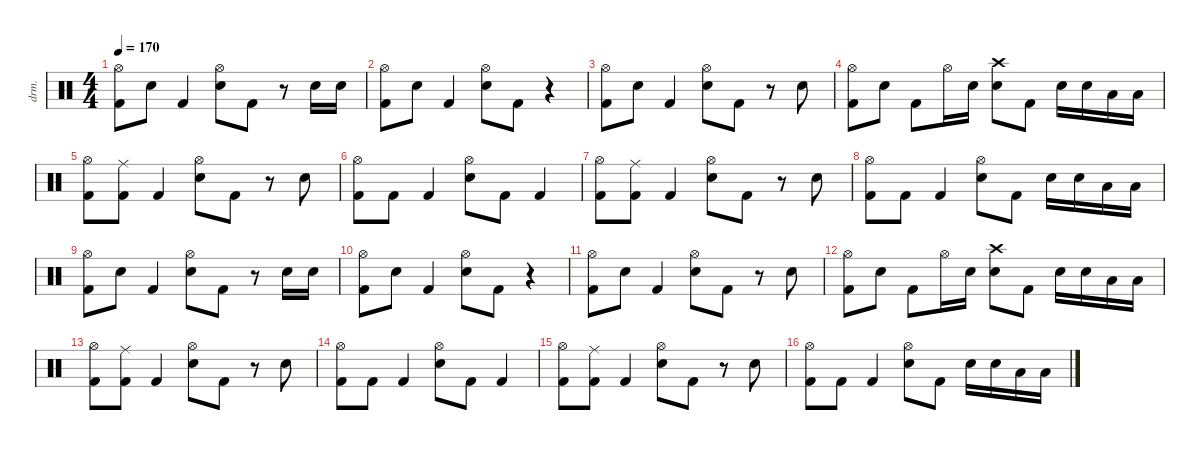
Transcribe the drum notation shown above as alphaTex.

\defaultSystemsLayout 4
\hideDynamics
\bracketExtendMode nobrackets
\otherSystemsTrackNameOrientation horizontal
\track ("Kontakt" "drm.") {instrument percussion}
\staff {score}
\articulation defaults
\ts (4 4)
\tempo 170
\clef neutral
\ks c
("Kick (hit) 2" "Hi-Hat (open)"{acc #}).8{dy ff beam Down} "Snare (hit) 2".8{beam Down} "Kick (hit) 2".4{beam Up} ("Snare (hit) 2" "Hi-Hat (open)"{acc #}).8{beam Down} "Kick (hit) 2".8{beam Down} r.8{beam Down} "Snare (hit) 2".16{beam Down} "Snare (hit) 2".16{beam Down} |
("Kick (hit) 2" "Hi-Hat (open)"{acc #}).8{beam Down} "Snare (hit) 2".8{beam Down} "Kick (hit) 2".4{beam Up} ("Snare (hit) 2" "Hi-Hat (open)"{acc #}).8{beam Down} "Kick (hit) 2".8{beam Down} r.4{beam Down} |
("Kick (hit) 2" "Hi-Hat (open)"{acc #}).8{beam Down} "Snare (hit) 2".8{beam Down} "Kick (hit) 2".4{beam Up} ("Snare (hit) 2" "Hi-Hat (open)"{acc #}).8{beam Down} "Kick (hit) 2".8{beam Down} r.8{beam Down} "Snare (hit) 2".8{beam Down} |
("Kick (hit) 2" "Hi-Hat (open)"{acc #}).8{beam Down} "Snare (hit) 2".8{beam Down} "Kick (hit) 2".8{beam Down} "Hi-Hat (open)"{acc #}.16{beam Down} "Snare (hit) 2".16{beam Down} ("Snare (hit) 2" "Crash high (hit)"{acc #}).8{beam Down} "Kick (hit) 2".8{beam Down} "Snare (hit) 2".16{beam Down} "Snare (hit) 2".16{beam Down} "Low Tom (hit)".16{beam Down} "Low Tom (hit)".16{beam Down} |
("Kick (hit) 2" "Hi-Hat (open)"{acc #}).8{beam Down} ("Kick (hit) 2" "Ride (middle)"{acc #}).8{beam Down} "Kick (hit) 2".4{beam Up} ("Snare (hit) 2" "Hi-Hat (open)"{acc #}).8{beam Down} "Kick (hit) 2".8{beam Down} r.8{beam Down} "Snare (hit) 2".8{beam Down} |
("Kick (hit) 2" "Hi-Hat (open)"{acc #}).8{beam Down} "Kick (hit) 2".8{beam Down} "Kick (hit) 2".4{beam Up} ("Snare (hit) 2" "Hi-Hat (open)"{acc #}).8{beam Down} "Kick (hit) 2".8{beam Down} "Kick (hit) 2".4{beam Up} |
("Kick (hit) 2" "Hi-Hat (open)"{acc #}).8{beam Down} ("Kick (hit) 2" "Ride (middle)"{acc #}).8{beam Down} "Kick (hit) 2".4{beam Up} ("Snare (hit) 2" "Hi-Hat (open)"{acc #}).8{beam Down} "Kick (hit) 2".8{beam Down} r.8{beam Down} "Snare (hit) 2".8{beam Down} |
("Kick (hit) 2" "Hi-Hat (open)"{acc #}).8{beam Down} "Kick (hit) 2".8{beam Down} "Kick (hit) 2".4{beam Up} ("Snare (hit) 2" "Hi-Hat (open)"{acc #}).8{beam Down} "Kick (hit) 2".8{beam Down} "Snare (hit) 2".16{beam Down} "Snare (hit) 2".16{beam Down} "Low Tom (hit)".16{beam Down} "Low Tom (hit)".16{beam Down} |
("Kick (hit) 2" "Hi-Hat (open)"{acc #}).8{beam Down} "Snare (hit) 2".8{beam Down} "Kick (hit) 2".4{beam Up} ("Snare (hit) 2" "Hi-Hat (open)"{acc #}).8{beam Down} "Kick (hit) 2".8{beam Down} r.8{beam Down} "Snare (hit) 2".16{beam Down} "Snare (hit) 2".16{beam Down} |
("Kick (hit) 2" "Hi-Hat (open)"{acc #}).8{beam Down} "Snare (hit) 2".8{beam Down} "Kick (hit) 2".4{beam Up} ("Snare (hit) 2" "Hi-Hat (open)"{acc #}).8{beam Down} "Kick (hit) 2".8{beam Down} r.4{beam Down} |
("Kick (hit) 2" "Hi-Hat (open)"{acc #}).8{beam Down} "Snare (hit) 2".8{beam Down} "Kick (hit) 2".4{beam Up} ("Snare (hit) 2" "Hi-Hat (open)"{acc #}).8{beam Down} "Kick (hit) 2".8{beam Down} r.8{beam Down} "Snare (hit) 2".8{beam Down} |
("Kick (hit) 2" "Hi-Hat (open)"{acc #}).8{beam Down} "Snare (hit) 2".8{beam Down} "Kick (hit) 2".8{beam Down} "Hi-Hat (open)"{acc #}.16{beam Down} "Snare (hit) 2".16{beam Down} ("Snare (hit) 2" "Crash high (hit)"{acc #}).8{beam Down} "Kick (hit) 2".8{beam Down} "Snare (hit) 2".16{beam Down} "Snare (hit) 2".16{beam Down} "Low Tom (hit)".16{beam Down} "Low Tom (hit)".16{beam Down} |
("Kick (hit) 2" "Hi-Hat (open)"{acc #}).8{beam Down} ("Kick (hit) 2" "Ride (middle)"{acc #}).8{beam Down} "Kick (hit) 2".4{beam Up} ("Snare (hit) 2" "Hi-Hat (open)"{acc #}).8{beam Down} "Kick (hit) 2".8{beam Down} r.8{beam Down} "Snare (hit) 2".8{beam Down} |
("Kick (hit) 2" "Hi-Hat (open)"{acc #}).8{beam Down} "Kick (hit) 2".8{beam Down} "Kick (hit) 2".4{beam Up} ("Snare (hit) 2" "Hi-Hat (open)"{acc #}).8{beam Down} "Kick (hit) 2".8{beam Down} "Kick (hit) 2".4{beam Up} |
("Kick (hit) 2" "Hi-Hat (open)"{acc #}).8{beam Down} ("Kick (hit) 2" "Ride (middle)"{acc #}).8{beam Down} "Kick (hit) 2".4{beam Up} ("Snare (hit) 2" "Hi-Hat (open)"{acc #}).8{beam Down} "Kick (hit) 2".8{beam Down} r.8{beam Down} "Snare (hit) 2".8{beam Down} |
("Kick (hit) 2" "Hi-Hat (open)"{acc #}).8{beam Down} "Kick (hit) 2".8{beam Down} "Kick (hit) 2".4{beam Up} ("Snare (hit) 2" "Hi-Hat (open)"{acc #}).8{beam Down} "Kick (hit) 2".8{beam Down} "Snare (hit) 2".16{beam Down} "Snare (hit) 2".16{beam Down} "Low Tom (hit)".16{beam Down} "Low Tom (hit)".16{beam Down}
